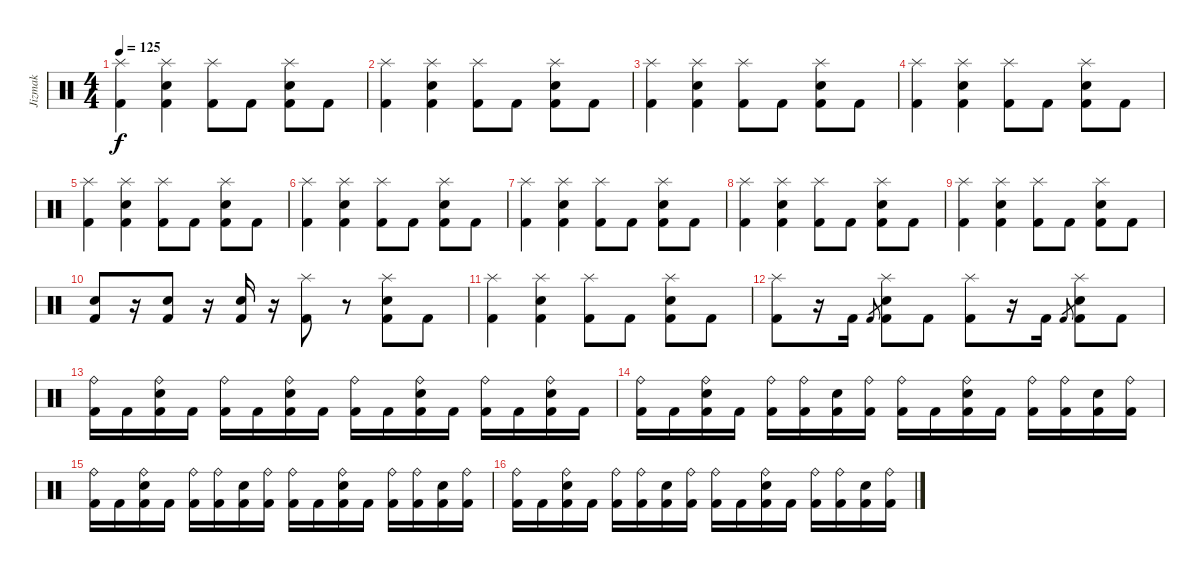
\track ("Jizmak" "Jizmak") {instrument percussion}
\staff {score}
\articulation defaults
\ts (4 4)
\tempo 125
\clef neutral
\ks c
("Splash (hit)" "Kick (hit) 2").4{dy f} ("Splash (hit)" "Snare (hit) 2" "Kick (hit) 2").4 ("Splash (hit)" "Kick (hit) 2").8 "Kick (hit) 2".8 ("Splash (hit)" "Snare (hit) 2" "Kick (hit) 2").8 "Kick (hit) 2".8 |
("Splash (hit)" "Kick (hit) 2").4 ("Splash (hit)" "Snare (hit) 2" "Kick (hit) 2").4 ("Splash (hit)" "Kick (hit) 2").8 "Kick (hit) 2".8 ("Splash (hit)" "Snare (hit) 2" "Kick (hit) 2").8 "Kick (hit) 2".8 |
("Splash (hit)" "Kick (hit) 2").4 ("Splash (hit)" "Snare (hit) 2" "Kick (hit) 2").4 ("Splash (hit)" "Kick (hit) 2").8 "Kick (hit) 2".8 ("Splash (hit)" "Snare (hit) 2" "Kick (hit) 2").8 "Kick (hit) 2".8 |
("Splash (hit)" "Kick (hit) 2").4 ("Splash (hit)" "Snare (hit) 2" "Kick (hit) 2").4 ("Splash (hit)" "Kick (hit) 2").8 "Kick (hit) 2".8 ("Splash (hit)" "Snare (hit) 2" "Kick (hit) 2").8 "Kick (hit) 2".8 |
("Splash (hit)" "Kick (hit) 2").4 ("Splash (hit)" "Snare (hit) 2" "Kick (hit) 2").4 ("Splash (hit)" "Kick (hit) 2").8 "Kick (hit) 2".8 ("Splash (hit)" "Snare (hit) 2" "Kick (hit) 2").8 "Kick (hit) 2".8 |
("Splash (hit)" "Kick (hit) 2").4 ("Splash (hit)" "Snare (hit) 2" "Kick (hit) 2").4 ("Splash (hit)" "Kick (hit) 2").8 "Kick (hit) 2".8 ("Splash (hit)" "Snare (hit) 2" "Kick (hit) 2").8 "Kick (hit) 2".8 |
("Splash (hit)" "Kick (hit) 2").4 ("Splash (hit)" "Snare (hit) 2" "Kick (hit) 2").4 ("Splash (hit)" "Kick (hit) 2").8 "Kick (hit) 2".8 ("Splash (hit)" "Snare (hit) 2" "Kick (hit) 2").8 "Kick (hit) 2".8 |
("Splash (hit)" "Kick (hit) 2").4 ("Splash (hit)" "Snare (hit) 2" "Kick (hit) 2").4 ("Splash (hit)" "Kick (hit) 2").8 "Kick (hit) 2".8 ("Splash (hit)" "Snare (hit) 2" "Kick (hit) 2").8 "Kick (hit) 2".8 |
("Splash (hit)" "Kick (hit) 2").4 ("Splash (hit)" "Snare (hit) 2" "Kick (hit) 2").4 ("Splash (hit)" "Kick (hit) 2").8 "Kick (hit) 2".8 ("Splash (hit)" "Snare (hit) 2" "Kick (hit) 2").8 "Kick (hit) 2".8 |
("Snare (hit) 2" "Kick (hit) 2").8 r.16 ("Snare (hit) 2" "Kick (hit) 2").8 r.16 ("Snare (hit) 2" "Kick (hit) 2").16 r.16 ("Splash (hit)" "Kick (hit) 2").8 r.8 ("Splash (hit)" "Snare (hit) 2" "Kick (hit) 2").8 "Kick (hit) 2".8 |
("Splash (hit)" "Kick (hit) 2").4 ("Splash (hit)" "Snare (hit) 2" "Kick (hit) 2").4 ("Splash (hit)" "Kick (hit) 2").8 "Kick (hit) 2".8 ("Splash (hit)" "Snare (hit) 2" "Kick (hit) 2").8 "Kick (hit) 2".8 |
("Splash (hit)" "Kick (hit) 2").8 r.16 "Kick (hit) 2".16 "Kick (hit) 2".8{gr} ("Splash (hit)" "Snare (hit) 2" "Kick (hit) 2").8 "Kick (hit) 2".8 ("Splash (hit)" "Kick (hit) 2").8 r.16 "Kick (hit) 2".16 "Kick (hit) 2".8{gr} ("Splash (hit)" "Snare (hit) 2" "Kick (hit) 2").8 "Kick (hit) 2".8 |
("Ride (bell)" "Kick (hit) 2").16 "Kick (hit) 2".16 ("Ride (bell)" "Snare (hit) 2" "Kick (hit) 2").16 "Kick (hit) 2".16 ("Ride (bell)" "Kick (hit) 2").16 "Kick (hit) 2".16 ("Ride (bell)" "Snare (hit) 2" "Kick (hit) 2").16 "Kick (hit) 2".16 ("Ride (bell)" "Kick (hit) 2").16 "Kick (hit) 2".16 ("Ride (bell)" "Snare (hit) 2" "Kick (hit) 2").16 "Kick (hit) 2".16 ("Ride (bell)" "Kick (hit) 2").16 "Kick (hit) 2".16 ("Ride (bell)" "Snare (hit) 2" "Kick (hit) 2").16 "Kick (hit) 2".16 |
("Ride (bell)" "Kick (hit) 2").16 "Kick (hit) 2".16 ("Ride (bell)" "Snare (hit) 2" "Kick (hit) 2").16 "Kick (hit) 2".16 ("Ride (bell)" "Kick (hit) 2").16 ("Ride (bell)" "Kick (hit) 2").16 ("Snare (hit) 2" "Kick (hit) 2").16 ("Ride (bell)" "Kick (hit) 2").16 ("Ride (bell)" "Kick (hit) 2").16 "Kick (hit) 2".16 ("Ride (bell)" "Snare (hit) 2" "Kick (hit) 2").16 "Kick (hit) 2".16 ("Ride (bell)" "Kick (hit) 2").16 ("Ride (bell)" "Kick (hit) 2").16 ("Snare (hit) 2" "Kick (hit) 2").16 ("Ride (bell)" "Kick (hit) 2").16 |
("Ride (bell)" "Kick (hit) 2").16 "Kick (hit) 2".16 ("Ride (bell)" "Snare (hit) 2" "Kick (hit) 2").16 "Kick (hit) 2".16 ("Ride (bell)" "Kick (hit) 2").16 ("Ride (bell)" "Kick (hit) 2").16 ("Snare (hit) 2" "Kick (hit) 2").16 ("Ride (bell)" "Kick (hit) 2").16 ("Ride (bell)" "Kick (hit) 2").16 "Kick (hit) 2".16 ("Ride (bell)" "Snare (hit) 2" "Kick (hit) 2").16 "Kick (hit) 2".16 ("Ride (bell)" "Kick (hit) 2").16 ("Ride (bell)" "Kick (hit) 2").16 ("Snare (hit) 2" "Kick (hit) 2").16 ("Ride (bell)" "Kick (hit) 2").16 |
("Ride (bell)" "Kick (hit) 2").16 "Kick (hit) 2".16 ("Ride (bell)" "Snare (hit) 2" "Kick (hit) 2").16 "Kick (hit) 2".16 ("Ride (bell)" "Kick (hit) 2").16 ("Ride (bell)" "Kick (hit) 2").16 ("Snare (hit) 2" "Kick (hit) 2").16 ("Ride (bell)" "Kick (hit) 2").16 ("Ride (bell)" "Kick (hit) 2").16 "Kick (hit) 2".16 ("Ride (bell)" "Snare (hit) 2" "Kick (hit) 2").16 "Kick (hit) 2".16 ("Ride (bell)" "Kick (hit) 2").16 ("Ride (bell)" "Kick (hit) 2").16 ("Snare (hit) 2" "Kick (hit) 2").16 ("Ride (bell)" "Kick (hit) 2").16
